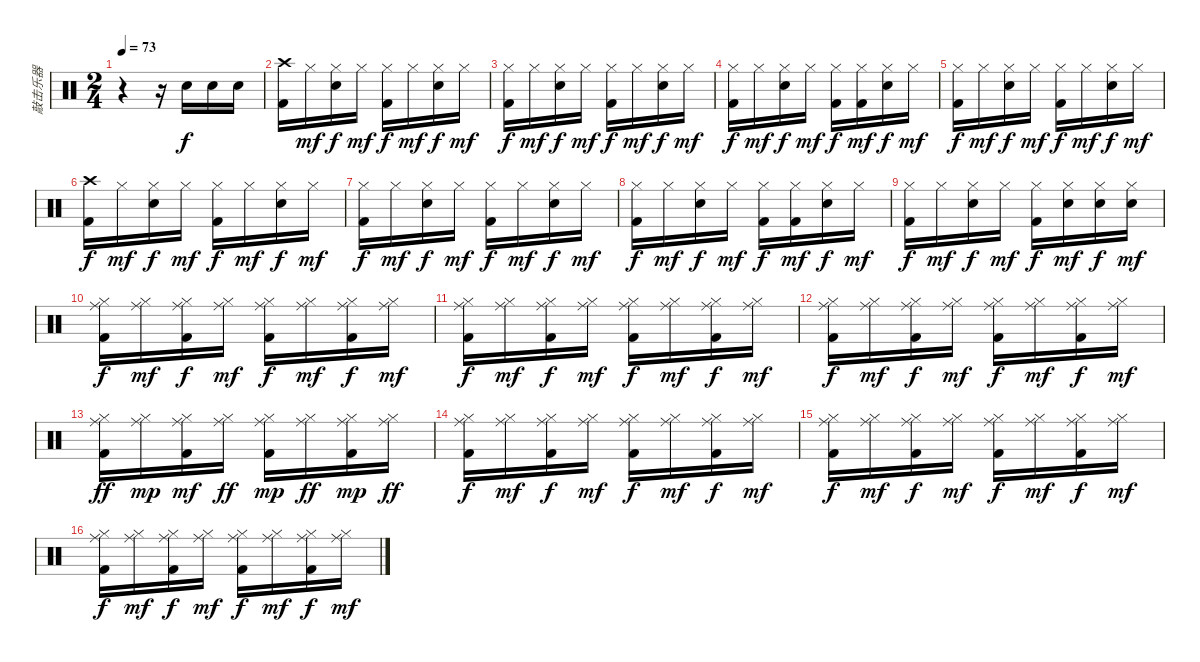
\track ("敲击乐器" "敲击乐器") {instrument percussion}
\staff {score}
\articulation defaults
\ts (2 4)
\tempo 73
\clef neutral
\ks c
r.4{dy f} r.16 "Electric Snare (hit)".16 "Electric Snare (hit)".16 "Electric Snare (hit)".16 |
("Crash high (hit)" "Kick (hit) 2").16 "Hi-Hat (closed)".16{dy mf} ("Hi-Hat (closed)" "Electric Snare (hit)").16{dy f} "Hi-Hat (closed)".16{dy mf} ("Hi-Hat (closed)" "Kick (hit) 2").16{dy f} "Hi-Hat (closed)".16{dy mf} ("Hi-Hat (closed)" "Electric Snare (hit)").16{dy f} "Hi-Hat (closed)".16{dy mf} |
("Hi-Hat (closed)" "Kick (hit) 2").16{dy f} "Hi-Hat (closed)".16{dy mf} ("Hi-Hat (closed)" "Electric Snare (hit)").16{dy f} "Hi-Hat (closed)".16{dy mf} ("Hi-Hat (closed)" "Kick (hit) 2").16{dy f} "Hi-Hat (closed)".16{dy mf} ("Hi-Hat (closed)" "Electric Snare (hit)").16{dy f} "Hi-Hat (closed)".16{dy mf} |
("Hi-Hat (closed)" "Kick (hit) 2").16{dy f} "Hi-Hat (closed)".16{dy mf} ("Hi-Hat (closed)" "Electric Snare (hit)").16{dy f} "Hi-Hat (closed)".16{dy mf} ("Hi-Hat (closed)" "Kick (hit) 2").16{dy f} ("Hi-Hat (closed)" "Kick (hit) 2").16{dy mf} ("Hi-Hat (closed)" "Electric Snare (hit)").16{dy f} "Hi-Hat (closed)".16{dy mf} |
("Hi-Hat (closed)" "Kick (hit) 2").16{dy f} "Hi-Hat (closed)".16{dy mf} ("Hi-Hat (closed)" "Electric Snare (hit)").16{dy f} "Hi-Hat (closed)".16{dy mf} ("Hi-Hat (closed)" "Kick (hit) 2").16{dy f} "Hi-Hat (closed)".16{dy mf} ("Hi-Hat (closed)" "Electric Snare (hit)").16{dy f} "Hi-Hat (closed)".16{dy mf} |
("Crash high (hit)" "Kick (hit) 2").16{dy f} "Hi-Hat (closed)".16{dy mf} ("Hi-Hat (closed)" "Electric Snare (hit)").16{dy f} "Hi-Hat (closed)".16{dy mf} ("Hi-Hat (closed)" "Kick (hit) 2").16{dy f} "Hi-Hat (closed)".16{dy mf} ("Hi-Hat (closed)" "Electric Snare (hit)").16{dy f} "Hi-Hat (closed)".16{dy mf} |
("Hi-Hat (closed)" "Kick (hit) 2").16{dy f} "Hi-Hat (closed)".16{dy mf} ("Hi-Hat (closed)" "Electric Snare (hit)").16{dy f} "Hi-Hat (closed)".16{dy mf} ("Hi-Hat (closed)" "Kick (hit) 2").16{dy f} "Hi-Hat (closed)".16{dy mf} ("Hi-Hat (closed)" "Electric Snare (hit)").16{dy f} "Hi-Hat (closed)".16{dy mf} |
("Hi-Hat (closed)" "Kick (hit) 2").16{dy f} "Hi-Hat (closed)".16{dy mf} ("Hi-Hat (closed)" "Electric Snare (hit)").16{dy f} "Hi-Hat (closed)".16{dy mf} ("Hi-Hat (closed)" "Kick (hit) 2").16{dy f} ("Hi-Hat (closed)" "Kick (hit) 2").16{dy mf} ("Hi-Hat (closed)" "Electric Snare (hit)").16{dy f} "Hi-Hat (closed)".16{dy mf} |
("Hi-Hat (closed)" "Kick (hit) 2").16{dy f} "Hi-Hat (closed)".16{dy mf} ("Hi-Hat (closed)" "Electric Snare (hit)").16{dy f} "Hi-Hat (closed)".16{dy mf} ("Hi-Hat (closed)" "Kick (hit) 2").16{dy f} ("Hi-Hat (closed)" "Electric Snare (hit)").16{dy mf} ("Hi-Hat (closed)" "Electric Snare (hit)").16{dy f} ("Hi-Hat (closed)" "Electric Snare (hit)").16{dy mf} |
("Hi-Hat (closed)" "Kick (hit) 2" "Ride (middle)").16{dy f} ("Hi-Hat (closed)" "Ride (middle)").16{dy mf} ("Hi-Hat (closed)" "Kick (hit) 2" "Ride (middle)").16{dy f} ("Hi-Hat (closed)" "Ride (middle)").16{dy mf} ("Hi-Hat (closed)" "Kick (hit) 2" "Ride (middle)").16{dy f} ("Hi-Hat (closed)" "Ride (middle)").16{dy mf} ("Hi-Hat (closed)" "Kick (hit) 2" "Ride (middle)").16{dy f} ("Hi-Hat (closed)" "Ride (middle)").16{dy mf} |
("Hi-Hat (closed)" "Kick (hit) 2" "Ride (middle)").16{dy f} ("Hi-Hat (closed)" "Ride (middle)").16{dy mf} ("Hi-Hat (closed)" "Kick (hit) 2" "Ride (middle)").16{dy f} ("Hi-Hat (closed)" "Ride (middle)").16{dy mf} ("Hi-Hat (closed)" "Kick (hit) 2" "Ride (middle)").16{dy f} ("Hi-Hat (closed)" "Ride (middle)").16{dy mf} ("Hi-Hat (closed)" "Kick (hit) 2" "Ride (middle)").16{dy f} ("Hi-Hat (closed)" "Ride (middle)").16{dy mf} |
("Hi-Hat (closed)" "Kick (hit) 2" "Ride (middle)").16{dy f} ("Hi-Hat (closed)" "Ride (middle)").16{dy mf} ("Hi-Hat (closed)" "Kick (hit) 2" "Ride (middle)").16{dy f} ("Hi-Hat (closed)" "Ride (middle)").16{dy mf} ("Hi-Hat (closed)" "Kick (hit) 2" "Ride (middle)").16{dy f} ("Hi-Hat (closed)" "Ride (middle)").16{dy mf} ("Hi-Hat (closed)" "Kick (hit) 2" "Ride (middle)").16{dy f} ("Hi-Hat (closed)" "Ride (middle)").16{dy mf} |
("Hi-Hat (closed)" "Kick (hit) 2" "Ride (middle)").16{dy ff} ("Hi-Hat (closed)" "Ride (middle)").16{dy mp} ("Hi-Hat (closed)" "Kick (hit) 2" "Ride (middle)").16{dy mf} ("Hi-Hat (closed)" "Ride (middle)").16{dy ff} ("Hi-Hat (closed)" "Kick (hit) 2" "Ride (middle)").16{dy mp} ("Hi-Hat (closed)" "Ride (middle)").16{dy ff} ("Hi-Hat (closed)" "Kick (hit) 2" "Ride (middle)").16{dy mp} ("Hi-Hat (closed)" "Ride (middle)").16{dy ff} |
("Hi-Hat (closed)" "Kick (hit) 2" "Ride (middle)").16{dy f} ("Hi-Hat (closed)" "Ride (middle)").16{dy mf} ("Hi-Hat (closed)" "Kick (hit) 2" "Ride (middle)").16{dy f} ("Hi-Hat (closed)" "Ride (middle)").16{dy mf} ("Hi-Hat (closed)" "Kick (hit) 2" "Ride (middle)").16{dy f} ("Hi-Hat (closed)" "Ride (middle)").16{dy mf} ("Hi-Hat (closed)" "Kick (hit) 2" "Ride (middle)").16{dy f} ("Hi-Hat (closed)" "Ride (middle)").16{dy mf} |
("Hi-Hat (closed)" "Kick (hit) 2" "Ride (middle)").16{dy f} ("Hi-Hat (closed)" "Ride (middle)").16{dy mf} ("Hi-Hat (closed)" "Kick (hit) 2" "Ride (middle)").16{dy f} ("Hi-Hat (closed)" "Ride (middle)").16{dy mf} ("Hi-Hat (closed)" "Kick (hit) 2" "Ride (middle)").16{dy f} ("Hi-Hat (closed)" "Ride (middle)").16{dy mf} ("Hi-Hat (closed)" "Kick (hit) 2" "Ride (middle)").16{dy f} ("Hi-Hat (closed)" "Ride (middle)").16{dy mf} |
("Hi-Hat (closed)" "Kick (hit) 2" "Ride (middle)").16{dy f} ("Hi-Hat (closed)" "Ride (middle)").16{dy mf} ("Hi-Hat (closed)" "Kick (hit) 2" "Ride (middle)").16{dy f} ("Hi-Hat (closed)" "Ride (middle)").16{dy mf} ("Hi-Hat (closed)" "Kick (hit) 2" "Ride (middle)").16{dy f} ("Hi-Hat (closed)" "Ride (middle)").16{dy mf} ("Hi-Hat (closed)" "Kick (hit) 2" "Ride (middle)").16{dy f} ("Hi-Hat (closed)" "Ride (middle)").16{dy mf}
